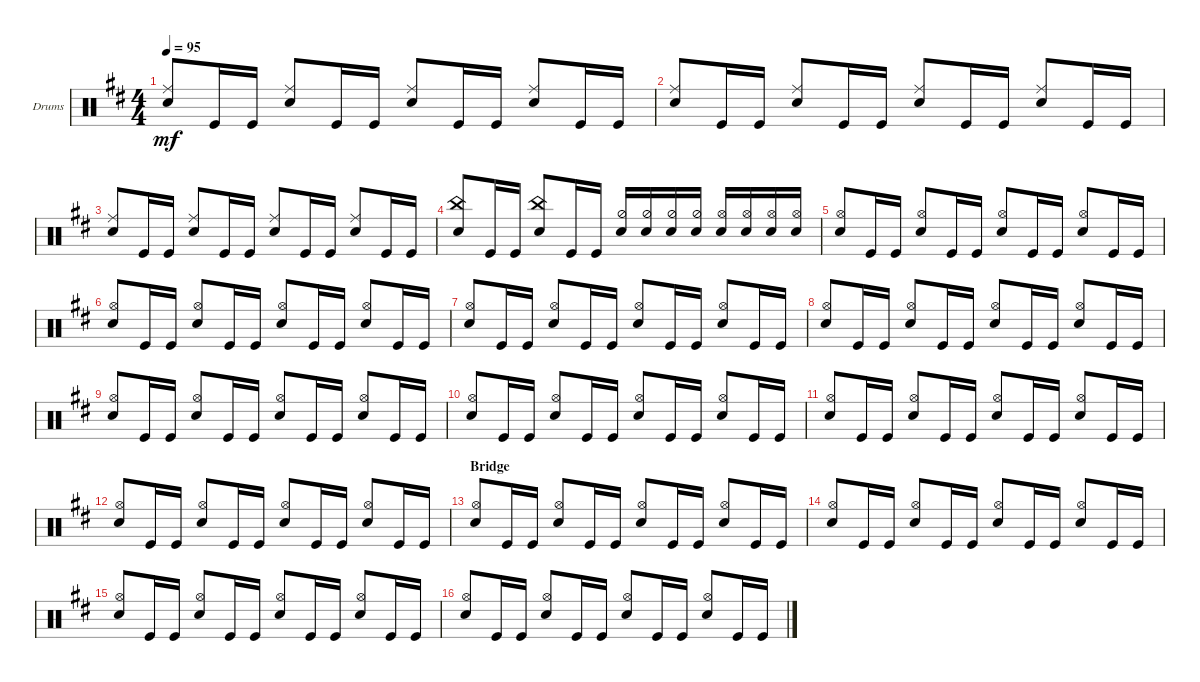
\defaultSystemsLayout 4
\bracketExtendMode groupsimilarinstruments
\firstSystemTrackNameOrientation horizontal
\otherSystemsTrackNameOrientation horizontal
\track ("Drumkit" "Drums") {instrument percussion}
\staff {score}
\articulation defaults
\ts (4 4)
\tempo 95
\clef neutral
\scale
0.333333
\ks d
("Snare (hit) 2" "Ride (middle)").8{dy mf beam invert} "Kick (hit)".16 "Kick (hit)".16 ("Snare (hit) 2" "Ride (middle)").8{beam invert} "Kick (hit)".16 "Kick (hit)".16 ("Snare (hit) 2" "Ride (middle)").8{beam invert} "Kick (hit)".16 "Kick (hit)".16 ("Snare (hit) 2" "Ride (middle)").8{beam invert} "Kick (hit)".16 "Kick (hit)".16 |
\scale
0.333333 ("Snare (hit) 2" "Ride (middle)").8{beam invert} "Kick (hit)".16 "Kick (hit)".16 ("Snare (hit) 2" "Ride (middle)").8{beam invert} "Kick (hit)".16 "Kick (hit)".16 ("Snare (hit) 2" "Ride (middle)").8{beam invert} "Kick (hit)".16 "Kick (hit)".16 ("Snare (hit) 2" "Ride (middle)").8{beam invert} "Kick (hit)".16 "Kick (hit)".16 |
\scale
0.333333 ("Snare (hit) 2" "Ride (middle)").8{beam invert} "Kick (hit)".16 "Kick (hit)".16 ("Snare (hit) 2" "Ride (middle)").8{beam invert} "Kick (hit)".16 "Kick (hit)".16 ("Snare (hit) 2" "Ride (middle)").8{beam invert} "Kick (hit)".16 "Kick (hit)".16 ("Snare (hit) 2" "Ride (middle)").8{beam invert} "Kick (hit)".16 "Kick (hit)".16 |
\scale
0.333333 ("Snare (hit) 2" "China (hit)").8{beam invert} "Kick (hit)".16 "Kick (hit)".16 ("Snare (hit) 2" "China (hit)").8{beam invert} "Kick (hit)".16 "Kick (hit)".16 ("Snare (hit) 2" "Hi-Hat (half)").16{beam invert} ("Snare (hit) 2" "Hi-Hat (half)").16 ("Snare (hit) 2" "Hi-Hat (half)").16 ("Snare (hit) 2" "Hi-Hat (half)").16 ("Snare (hit) 2" "Hi-Hat (open)").16{beam invert} ("Snare (hit) 2" "Hi-Hat (open)").16 ("Snare (hit) 2" "Hi-Hat (open)").16 ("Snare (hit) 2" "Hi-Hat (open)").16 |
\scale
0.333333 ("Snare (hit) 2" "Hi-Hat (open)").8{beam invert} "Kick (hit)".16 "Kick (hit)".16 ("Snare (hit) 2" "Hi-Hat (open)").8{beam invert} "Kick (hit)".16 "Kick (hit)".16 ("Snare (hit) 2" "Hi-Hat (open)").8{beam invert} "Kick (hit)".16 "Kick (hit)".16 ("Snare (hit) 2" "Hi-Hat (open)").8{beam invert} "Kick (hit)".16 "Kick (hit)".16 |
\scale
0.333333 ("Snare (hit) 2" "Hi-Hat (open)").8{beam invert} "Kick (hit)".16 "Kick (hit)".16 ("Snare (hit) 2" "Hi-Hat (open)").8{beam invert} "Kick (hit)".16 "Kick (hit)".16 ("Snare (hit) 2" "Hi-Hat (open)").8{beam invert} "Kick (hit)".16 "Kick (hit)".16 ("Snare (hit) 2" "Hi-Hat (open)").8{beam invert} "Kick (hit)".16 "Kick (hit)".16 |
\scale
0.333333 ("Snare (hit) 2" "Hi-Hat (open)").8{beam invert} "Kick (hit)".16 "Kick (hit)".16 ("Snare (hit) 2" "Hi-Hat (open)").8{beam invert} "Kick (hit)".16 "Kick (hit)".16 ("Snare (hit) 2" "Hi-Hat (open)").8{beam invert} "Kick (hit)".16 "Kick (hit)".16 ("Snare (hit) 2" "Hi-Hat (open)").8{beam invert} "Kick (hit)".16 "Kick (hit)".16 |
\scale
0.333333 ("Snare (hit) 2" "Hi-Hat (open)").8{beam invert} "Kick (hit)".16 "Kick (hit)".16 ("Snare (hit) 2" "Hi-Hat (open)").8{beam invert} "Kick (hit)".16 "Kick (hit)".16 ("Snare (hit) 2" "Hi-Hat (open)").8{beam invert} "Kick (hit)".16 "Kick (hit)".16 ("Snare (hit) 2" "Hi-Hat (open)").8{beam invert} "Kick (hit)".16 "Kick (hit)".16 |
\scale
0.333333 ("Snare (hit) 2" "Hi-Hat (open)").8{beam invert} "Kick (hit)".16 "Kick (hit)".16 ("Snare (hit) 2" "Hi-Hat (open)").8{beam invert} "Kick (hit)".16 "Kick (hit)".16 ("Snare (hit) 2" "Hi-Hat (open)").8{beam invert} "Kick (hit)".16 "Kick (hit)".16 ("Snare (hit) 2" "Hi-Hat (open)").8{beam invert} "Kick (hit)".16 "Kick (hit)".16 |
\scale
0.333333 ("Snare (hit) 2" "Hi-Hat (open)").8{beam invert} "Kick (hit)".16 "Kick (hit)".16 ("Snare (hit) 2" "Hi-Hat (open)").8{beam invert} "Kick (hit)".16 "Kick (hit)".16 ("Snare (hit) 2" "Hi-Hat (open)").8{beam invert} "Kick (hit)".16 "Kick (hit)".16 ("Snare (hit) 2" "Hi-Hat (open)").8{beam invert} "Kick (hit)".16 "Kick (hit)".16 |
\scale
0.333333 ("Snare (hit) 2" "Hi-Hat (open)").8{beam invert} "Kick (hit)".16 "Kick (hit)".16 ("Snare (hit) 2" "Hi-Hat (open)").8{beam invert} "Kick (hit)".16 "Kick (hit)".16 ("Snare (hit) 2" "Hi-Hat (open)").8{beam invert} "Kick (hit)".16 "Kick (hit)".16 ("Snare (hit) 2" "Hi-Hat (open)").8{beam invert} "Kick (hit)".16 "Kick (hit)".16 |
\scale
0.333333 ("Snare (hit) 2" "Hi-Hat (open)").8{beam invert} "Kick (hit)".16 "Kick (hit)".16 ("Snare (hit) 2" "Hi-Hat (open)").8{beam invert} "Kick (hit)".16 "Kick (hit)".16 ("Snare (hit) 2" "Hi-Hat (open)").8{beam invert} "Kick (hit)".16 "Kick (hit)".16 ("Snare (hit) 2" "Hi-Hat (open)").8{beam invert} "Kick (hit)".16 "Kick (hit)".16 |
\section ("" "Bridge")
\scale
0.333333 ("Snare (hit) 2" "Hi-Hat (open)").8{beam invert} "Kick (hit)".16 "Kick (hit)".16 ("Snare (hit) 2" "Hi-Hat (open)").8{beam invert} "Kick (hit)".16 "Kick (hit)".16 ("Snare (hit) 2" "Hi-Hat (open)").8{beam invert} "Kick (hit)".16 "Kick (hit)".16 ("Snare (hit) 2" "Hi-Hat (open)").8{beam invert} "Kick (hit)".16 "Kick (hit)".16 |
\scale
0.333333 ("Snare (hit) 2" "Hi-Hat (open)").8{beam invert} "Kick (hit)".16 "Kick (hit)".16 ("Snare (hit) 2" "Hi-Hat (open)").8{beam invert} "Kick (hit)".16 "Kick (hit)".16 ("Snare (hit) 2" "Hi-Hat (open)").8{beam invert} "Kick (hit)".16 "Kick (hit)".16 ("Snare (hit) 2" "Hi-Hat (open)").8{beam invert} "Kick (hit)".16 "Kick (hit)".16 |
\scale
0.333333 ("Snare (hit) 2" "Hi-Hat (open)").8{beam invert} "Kick (hit)".16 "Kick (hit)".16 ("Snare (hit) 2" "Hi-Hat (open)").8{beam invert} "Kick (hit)".16 "Kick (hit)".16 ("Snare (hit) 2" "Hi-Hat (open)").8{beam invert} "Kick (hit)".16 "Kick (hit)".16 ("Snare (hit) 2" "Hi-Hat (open)").8{beam invert} "Kick (hit)".16 "Kick (hit)".16 |
\scale
0.333333 ("Snare (hit) 2" "Hi-Hat (open)").8{beam invert} "Kick (hit)".16 "Kick (hit)".16 ("Snare (hit) 2" "Hi-Hat (open)").8{beam invert} "Kick (hit)".16 "Kick (hit)".16 ("Snare (hit) 2" "Hi-Hat (open)").8{beam invert} "Kick (hit)".16 "Kick (hit)".16 ("Snare (hit) 2" "Hi-Hat (open)").8{beam invert} "Kick (hit)".16 "Kick (hit)".16
